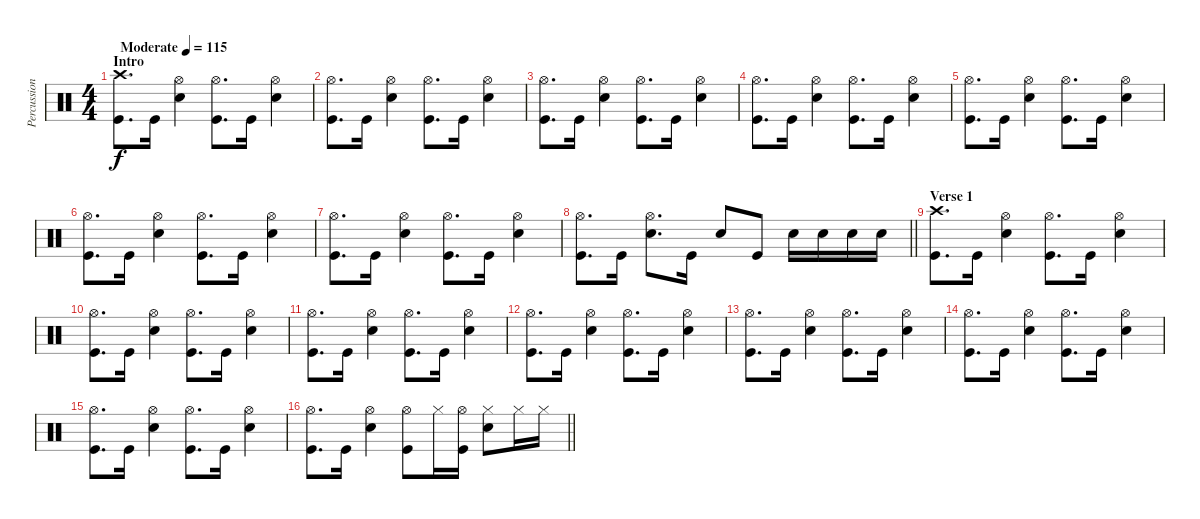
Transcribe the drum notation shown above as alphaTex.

\track ("Percussion" "Percussion") {instrument percussion}
\staff {score}
\articulation defaults
\ts (4 4)
\section ("" "Intro")
\tempo (115 "Moderate")
\clef neutral
\ks c
("Crash high (hit)" "Kick (hit)").8{d dy f} "Kick (hit)".16 ("Hi-Hat (open)" "Electric Snare (hit)").4 ("Hi-Hat (open)" "Kick (hit)").8{d} "Kick (hit)".16 ("Hi-Hat (open)" "Electric Snare (hit)").4 |
("Hi-Hat (open)" "Kick (hit)").8{d} "Kick (hit)".16 ("Hi-Hat (open)" "Electric Snare (hit)").4 ("Hi-Hat (open)" "Kick (hit)").8{d} "Kick (hit)".16 ("Hi-Hat (open)" "Electric Snare (hit)").4 |
("Hi-Hat (open)" "Kick (hit)").8{d} "Kick (hit)".16 ("Hi-Hat (open)" "Electric Snare (hit)").4 ("Hi-Hat (open)" "Kick (hit)").8{d} "Kick (hit)".16 ("Hi-Hat (open)" "Electric Snare (hit)").4 |
("Hi-Hat (open)" "Kick (hit)").8{d} "Kick (hit)".16 ("Hi-Hat (open)" "Electric Snare (hit)").4 ("Hi-Hat (open)" "Kick (hit)").8{d} "Kick (hit)".16 ("Hi-Hat (open)" "Electric Snare (hit)").4 |
("Hi-Hat (open)" "Kick (hit)").8{d} "Kick (hit)".16 ("Hi-Hat (open)" "Electric Snare (hit)").4 ("Hi-Hat (open)" "Kick (hit)").8{d} "Kick (hit)".16 ("Hi-Hat (open)" "Electric Snare (hit)").4 |
("Hi-Hat (open)" "Kick (hit)").8{d} "Kick (hit)".16 ("Hi-Hat (open)" "Electric Snare (hit)").4 ("Hi-Hat (open)" "Kick (hit)").8{d} "Kick (hit)".16 ("Hi-Hat (open)" "Electric Snare (hit)").4 |
("Hi-Hat (open)" "Kick (hit)").8{d} "Kick (hit)".16 ("Hi-Hat (open)" "Electric Snare (hit)").4 ("Hi-Hat (open)" "Kick (hit)").8{d} "Kick (hit)".16 ("Hi-Hat (open)" "Electric Snare (hit)").4 |
\barLineRight lightlight
("Hi-Hat (open)" "Kick (hit)").8{d} "Kick (hit)".16 ("Hi-Hat (open)" "Electric Snare (hit)").8{d} "Kick (hit)".16 "Electric Snare (hit)".8 "Kick (hit)".8 "Electric Snare (hit)".16 "Electric Snare (hit)".16 "Electric Snare (hit)".16 "Electric Snare (hit)".16 |
\section ("" "Verse 1")
("Crash high (hit)" "Kick (hit)").8{d} "Kick (hit)".16 ("Hi-Hat (open)" "Electric Snare (hit)").4 ("Hi-Hat (open)" "Kick (hit)").8{d} "Kick (hit)".16 ("Hi-Hat (open)" "Electric Snare (hit)").4 |
("Hi-Hat (open)" "Kick (hit)").8{d} "Kick (hit)".16 ("Hi-Hat (open)" "Electric Snare (hit)").4 ("Hi-Hat (open)" "Kick (hit)").8{d} "Kick (hit)".16 ("Hi-Hat (open)" "Electric Snare (hit)").4 |
("Hi-Hat (open)" "Kick (hit)").8{d} "Kick (hit)".16 ("Hi-Hat (open)" "Electric Snare (hit)").4 ("Hi-Hat (open)" "Kick (hit)").8{d} "Kick (hit)".16 ("Hi-Hat (open)" "Electric Snare (hit)").4 |
("Hi-Hat (open)" "Kick (hit)").8{d} "Kick (hit)".16 ("Hi-Hat (open)" "Electric Snare (hit)").4 ("Hi-Hat (open)" "Kick (hit)").8{d} "Kick (hit)".16 ("Hi-Hat (open)" "Electric Snare (hit)").4 |
("Hi-Hat (open)" "Kick (hit)").8{d} "Kick (hit)".16 ("Hi-Hat (open)" "Electric Snare (hit)").4 ("Hi-Hat (open)" "Kick (hit)").8{d} "Kick (hit)".16 ("Hi-Hat (open)" "Electric Snare (hit)").4 |
("Hi-Hat (open)" "Kick (hit)").8{d} "Kick (hit)".16 ("Hi-Hat (open)" "Electric Snare (hit)").4 ("Hi-Hat (open)" "Kick (hit)").8{d} "Kick (hit)".16 ("Hi-Hat (open)" "Electric Snare (hit)").4 |
("Hi-Hat (open)" "Kick (hit)").8{d} "Kick (hit)".16 ("Hi-Hat (open)" "Electric Snare (hit)").4 ("Hi-Hat (open)" "Kick (hit)").8{d} "Kick (hit)".16 ("Hi-Hat (open)" "Electric Snare (hit)").4 |
\barLineRight lightlight
("Hi-Hat (open)" "Kick (hit)").8{d} "Kick (hit)".16 ("Hi-Hat (open)" "Electric Snare (hit)").4 ("Hi-Hat (open)" "Kick (hit)").8 "Hi-Hat (closed)".16 ("Hi-Hat (open)" "Kick (hit)").16 ("Hi-Hat (closed)" "Electric Snare (hit)").8 "Hi-Hat (closed)".16 "Hi-Hat (closed)".16
